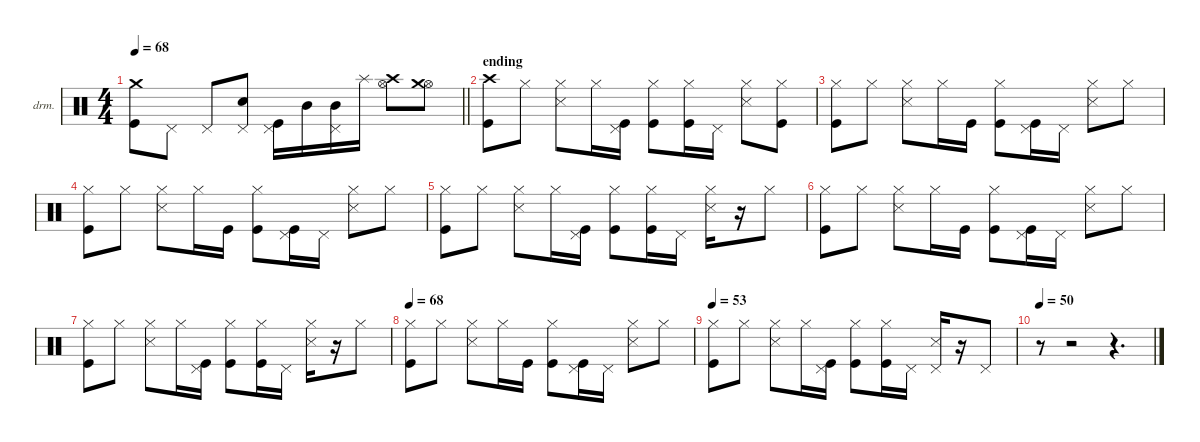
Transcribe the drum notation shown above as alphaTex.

\defaultSystemsLayout 4
\hideDynamics
\bracketExtendMode nobrackets
\firstSystemTrackNameOrientation horizontal
\otherSystemsTrackNameOrientation horizontal
\track ("Drums" "drm.") {instrument percussion}
\staff {score}
\articulation defaults
\ts (4 4)
\tempo 68
\clef neutral
\barLineRight lightlight
\ks c
("Crash medium (hit)" "Kick (hit)").8{dy f} "Pedal Hi-Hat (hit)".8 "Pedal Hi-Hat (hit)".8 ("Pedal Hi-Hat (hit)" "Snare (hit) 2").8 ("Pedal Hi-Hat (hit)" "Kick (hit)").16 "Mid Tom (hit)".16 ("Pedal Hi-Hat (hit)" "Mid Tom (hit)").16 "Splash (hit)".16 ("Hi-Hat (open)" "Crash high (hit)").8 ("Hi-Hat (open)" "Crash medium (hit)").8 |
\section ("" "ending")
("Kick (hit)" "Crash high (hit)").8 "Hi-Hat (closed)".8 ("Snare (side stick) 3" "Hi-Hat (closed)").8 "Hi-Hat (closed)".16 ("Pedal Hi-Hat (hit)" "Kick (hit)").16 ("Hi-Hat (closed)" "Kick (hit)").8 ("Hi-Hat (closed)" "Kick (hit)").16 "Pedal Hi-Hat (hit)".16 ("Snare (side stick) 3" "Hi-Hat (closed)").8 ("Kick (hit)" "Hi-Hat (closed)").8 |
("Kick (hit)" "Hi-Hat (closed)").8 "Hi-Hat (closed)".8 ("Snare (side stick) 3" "Hi-Hat (closed)").8 "Hi-Hat (closed)".16 "Kick (hit)".16 ("Hi-Hat (closed)" "Kick (hit)").8 ("Pedal Hi-Hat (hit)" "Kick (hit)").16 "Pedal Hi-Hat (hit)".16 ("Snare (side stick) 3" "Hi-Hat (closed)").8 "Hi-Hat (closed)".8 |
("Kick (hit)" "Hi-Hat (closed)").8 "Hi-Hat (closed)".8 ("Snare (side stick) 3" "Hi-Hat (closed)").8 "Hi-Hat (closed)".16 "Kick (hit)".16 ("Hi-Hat (closed)" "Kick (hit)").8 ("Pedal Hi-Hat (hit)" "Kick (hit)").16 "Pedal Hi-Hat (hit)".16 ("Snare (side stick) 3" "Hi-Hat (closed)").8 "Hi-Hat (closed)".8 |
("Kick (hit)" "Hi-Hat (closed)").8 "Hi-Hat (closed)".8 ("Snare (side stick) 3" "Hi-Hat (closed)").8 "Hi-Hat (closed)".16 ("Pedal Hi-Hat (hit)" "Kick (hit)").16 ("Hi-Hat (closed)" "Kick (hit)").8 ("Hi-Hat (closed)" "Kick (hit)").16 "Pedal Hi-Hat (hit)".16 ("Snare (side stick) 3" "Hi-Hat (closed)").16 r.16 "Hi-Hat (closed)".8 |
("Kick (hit)" "Hi-Hat (closed)").8 "Hi-Hat (closed)".8 ("Snare (side stick) 3" "Hi-Hat (closed)").8 "Hi-Hat (closed)".16 "Kick (hit)".16 ("Hi-Hat (closed)" "Kick (hit)").8 ("Pedal Hi-Hat (hit)" "Kick (hit)").16 "Pedal Hi-Hat (hit)".16 ("Snare (side stick) 3" "Hi-Hat (closed)").8 "Hi-Hat (closed)".8 |
("Kick (hit)" "Hi-Hat (closed)").8 "Hi-Hat (closed)".8 ("Snare (side stick) 3" "Hi-Hat (closed)").8 "Hi-Hat (closed)".16 ("Pedal Hi-Hat (hit)" "Kick (hit)").16 ("Hi-Hat (closed)" "Kick (hit)").8 ("Hi-Hat (closed)" "Kick (hit)").16 "Pedal Hi-Hat (hit)".16 ("Snare (side stick) 3" "Hi-Hat (closed)").16 r.16 "Hi-Hat (closed)".8 |
\tempo 68
("Kick (hit)" "Hi-Hat (closed)").8 "Hi-Hat (closed)".8 ("Snare (side stick) 3" "Hi-Hat (closed)").8 "Hi-Hat (closed)".16 "Kick (hit)".16 ("Hi-Hat (closed)" "Kick (hit)").8 ("Pedal Hi-Hat (hit)" "Kick (hit)").16 "Pedal Hi-Hat (hit)".16 ("Snare (side stick) 3" "Hi-Hat (closed)").8 "Hi-Hat (closed)".8 |
\tempo 53
("Kick (hit)" "Hi-Hat (closed)").8 "Hi-Hat (closed)".8 ("Snare (side stick) 3" "Hi-Hat (closed)").8 "Hi-Hat (closed)".16 ("Pedal Hi-Hat (hit)" "Kick (hit)").16 ("Hi-Hat (closed)" "Kick (hit)").8 ("Hi-Hat (closed)" "Kick (hit)").16 "Pedal Hi-Hat (hit)".16 ("Snare (side stick) 3" "Pedal Hi-Hat (hit)").16 r.16 "Pedal Hi-Hat (hit)".8 |
\tempo 50
r.8 r.2 r.4{d}
